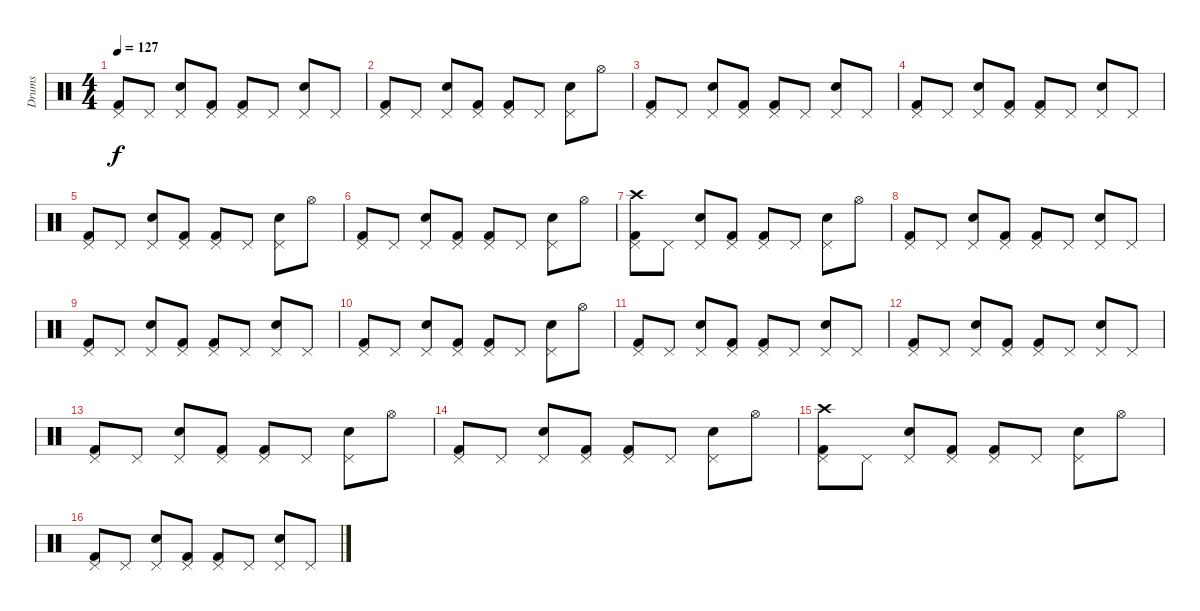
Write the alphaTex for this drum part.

\track ("Drums" "Drums") {instrument percussion}
\staff {score}
\articulation defaults
\ts (4 4)
\tempo 127
\clef neutral
\ks c
("Pedal Hi-Hat (hit)" "Kick (hit) 2").8{dy f} "Pedal Hi-Hat (hit)".8 ("Pedal Hi-Hat (hit)" "Snare (hit) 2").8 ("Pedal Hi-Hat (hit)" "Kick (hit) 2").8 ("Pedal Hi-Hat (hit)" "Kick (hit) 2").8 "Pedal Hi-Hat (hit)".8 ("Pedal Hi-Hat (hit)" "Snare (hit) 2").8 "Pedal Hi-Hat (hit)".8 |
("Pedal Hi-Hat (hit)" "Kick (hit) 2").8{volume 14} "Pedal Hi-Hat (hit)".8 ("Pedal Hi-Hat (hit)" "Snare (hit) 2").8 ("Pedal Hi-Hat (hit)" "Kick (hit) 2").8 ("Pedal Hi-Hat (hit)" "Kick (hit) 2").8 "Pedal Hi-Hat (hit)".8 ("Pedal Hi-Hat (hit)" "Snare (hit) 2").8 "Hi-Hat (open)".8 |
("Pedal Hi-Hat (hit)" "Kick (hit) 2").8 "Pedal Hi-Hat (hit)".8 ("Pedal Hi-Hat (hit)" "Snare (hit) 2").8 ("Pedal Hi-Hat (hit)" "Kick (hit) 2").8 ("Pedal Hi-Hat (hit)" "Kick (hit) 2").8 "Pedal Hi-Hat (hit)".8 ("Pedal Hi-Hat (hit)" "Snare (hit) 2").8 "Pedal Hi-Hat (hit)".8 |
("Pedal Hi-Hat (hit)" "Kick (hit) 2").8 "Pedal Hi-Hat (hit)".8 ("Pedal Hi-Hat (hit)" "Snare (hit) 2").8 ("Pedal Hi-Hat (hit)" "Kick (hit) 2").8 ("Pedal Hi-Hat (hit)" "Kick (hit) 2").8 "Pedal Hi-Hat (hit)".8 ("Pedal Hi-Hat (hit)" "Snare (hit) 2").8 "Pedal Hi-Hat (hit)".8 |
("Pedal Hi-Hat (hit)" "Kick (hit) 2").8 "Pedal Hi-Hat (hit)".8 ("Pedal Hi-Hat (hit)" "Snare (hit) 2").8 ("Pedal Hi-Hat (hit)" "Kick (hit) 2").8 ("Pedal Hi-Hat (hit)" "Kick (hit) 2").8 "Pedal Hi-Hat (hit)".8 ("Pedal Hi-Hat (hit)" "Snare (hit) 2").8 "Hi-Hat (open)".8 |
("Pedal Hi-Hat (hit)" "Kick (hit) 2").8{volume 12} "Pedal Hi-Hat (hit)".8 ("Pedal Hi-Hat (hit)" "Snare (hit) 2").8 ("Pedal Hi-Hat (hit)" "Kick (hit) 2").8 ("Pedal Hi-Hat (hit)" "Kick (hit) 2").8 "Pedal Hi-Hat (hit)".8 ("Pedal Hi-Hat (hit)" "Snare (hit) 2").8 "Hi-Hat (open)".8 |
("Crash high (hit)" "Pedal Hi-Hat (hit)" "Kick (hit) 2").8 "Pedal Hi-Hat (hit)".8 ("Pedal Hi-Hat (hit)" "Snare (hit) 2").8 ("Pedal Hi-Hat (hit)" "Kick (hit) 2").8 ("Pedal Hi-Hat (hit)" "Kick (hit) 2").8 "Pedal Hi-Hat (hit)".8 ("Pedal Hi-Hat (hit)" "Snare (hit) 2").8 "Hi-Hat (open)".8 |
("Pedal Hi-Hat (hit)" "Kick (hit) 2").8 "Pedal Hi-Hat (hit)".8 ("Pedal Hi-Hat (hit)" "Snare (hit) 2").8 ("Pedal Hi-Hat (hit)" "Kick (hit) 2").8 ("Pedal Hi-Hat (hit)" "Kick (hit) 2").8 "Pedal Hi-Hat (hit)".8 ("Pedal Hi-Hat (hit)" "Snare (hit) 2").8 "Pedal Hi-Hat (hit)".8 |
("Pedal Hi-Hat (hit)" "Kick (hit) 2").8 "Pedal Hi-Hat (hit)".8 ("Pedal Hi-Hat (hit)" "Snare (hit) 2").8 ("Pedal Hi-Hat (hit)" "Kick (hit) 2").8 ("Pedal Hi-Hat (hit)" "Kick (hit) 2").8 "Pedal Hi-Hat (hit)".8 ("Pedal Hi-Hat (hit)" "Snare (hit) 2").8 "Pedal Hi-Hat (hit)".8 |
("Pedal Hi-Hat (hit)" "Kick (hit) 2").8{volume 8} "Pedal Hi-Hat (hit)".8 ("Pedal Hi-Hat (hit)" "Snare (hit) 2").8 ("Pedal Hi-Hat (hit)" "Kick (hit) 2").8 ("Pedal Hi-Hat (hit)" "Kick (hit) 2").8 "Pedal Hi-Hat (hit)".8 ("Pedal Hi-Hat (hit)" "Snare (hit) 2").8 "Hi-Hat (open)".8 |
("Pedal Hi-Hat (hit)" "Kick (hit) 2").8 "Pedal Hi-Hat (hit)".8 ("Pedal Hi-Hat (hit)" "Snare (hit) 2").8 ("Pedal Hi-Hat (hit)" "Kick (hit) 2").8 ("Pedal Hi-Hat (hit)" "Kick (hit) 2").8 "Pedal Hi-Hat (hit)".8 ("Pedal Hi-Hat (hit)" "Snare (hit) 2").8 "Pedal Hi-Hat (hit)".8 |
("Pedal Hi-Hat (hit)" "Kick (hit) 2").8 "Pedal Hi-Hat (hit)".8 ("Pedal Hi-Hat (hit)" "Snare (hit) 2").8 ("Pedal Hi-Hat (hit)" "Kick (hit) 2").8 ("Pedal Hi-Hat (hit)" "Kick (hit) 2").8 "Pedal Hi-Hat (hit)".8 ("Pedal Hi-Hat (hit)" "Snare (hit) 2").8 "Pedal Hi-Hat (hit)".8 |
("Pedal Hi-Hat (hit)" "Kick (hit) 2").8 "Pedal Hi-Hat (hit)".8 ("Pedal Hi-Hat (hit)" "Snare (hit) 2").8 ("Pedal Hi-Hat (hit)" "Kick (hit) 2").8 ("Pedal Hi-Hat (hit)" "Kick (hit) 2").8 "Pedal Hi-Hat (hit)".8 ("Pedal Hi-Hat (hit)" "Snare (hit) 2").8 "Hi-Hat (open)".8 |
("Pedal Hi-Hat (hit)" "Kick (hit) 2").8{volume 0} "Pedal Hi-Hat (hit)".8 ("Pedal Hi-Hat (hit)" "Snare (hit) 2").8 ("Pedal Hi-Hat (hit)" "Kick (hit) 2").8 ("Pedal Hi-Hat (hit)" "Kick (hit) 2").8 "Pedal Hi-Hat (hit)".8 ("Pedal Hi-Hat (hit)" "Snare (hit) 2").8 "Hi-Hat (open)".8 |
("Crash high (hit)" "Pedal Hi-Hat (hit)" "Kick (hit) 2").8 "Pedal Hi-Hat (hit)".8 ("Pedal Hi-Hat (hit)" "Snare (hit) 2").8 ("Pedal Hi-Hat (hit)" "Kick (hit) 2").8 ("Pedal Hi-Hat (hit)" "Kick (hit) 2").8 "Pedal Hi-Hat (hit)".8 ("Pedal Hi-Hat (hit)" "Snare (hit) 2").8 "Hi-Hat (open)".8 |
("Pedal Hi-Hat (hit)" "Kick (hit) 2").8 "Pedal Hi-Hat (hit)".8 ("Pedal Hi-Hat (hit)" "Snare (hit) 2").8 ("Pedal Hi-Hat (hit)" "Kick (hit) 2").8 ("Pedal Hi-Hat (hit)" "Kick (hit) 2").8 "Pedal Hi-Hat (hit)".8 ("Pedal Hi-Hat (hit)" "Snare (hit) 2").8 "Pedal Hi-Hat (hit)".8
